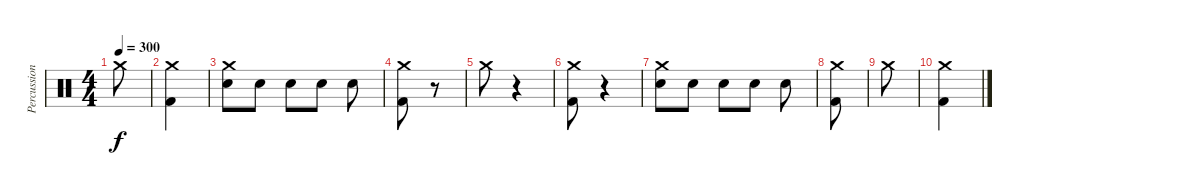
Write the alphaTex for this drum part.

\track ("Percussion" "Percussion") {instrument percussion}
\staff {score}
\articulation defaults
\ts (4 4)
\tempo 300
\clef neutral
\ks c "Crash medium (hit)".8{dy f}
|
("Kick (hit) 2" "Crash medium (hit)").4 |
("Snare (hit) 2" "Crash medium (hit)").8 "Snare (hit) 2".8 "Snare (hit) 2".8 "Snare (hit) 2".8 "Snare (hit) 2".8 |
("Kick (hit) 2" "Crash medium (hit)").8 r.8 |
"Crash medium (hit)".8 r.4 |
("Kick (hit) 2" "Crash medium (hit)").8 r.4 |
("Snare (hit) 2" "Crash medium (hit)").8 "Snare (hit) 2".8 "Snare (hit) 2".8 "Snare (hit) 2".8 "Snare (hit) 2".8 |
("Kick (hit) 2" "Crash medium (hit)").8 |
"Crash medium (hit)".8 |
("Kick (hit) 2" "Crash medium (hit)").4
